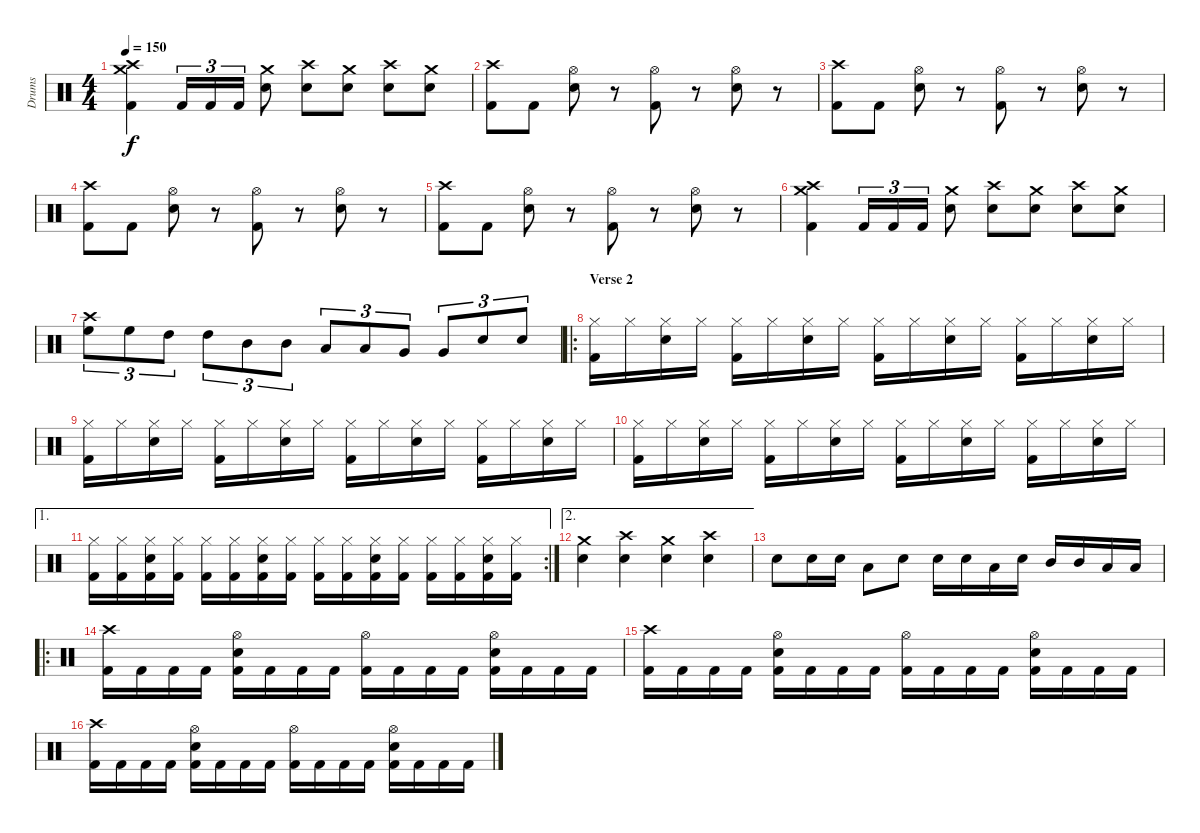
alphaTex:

\track ("Drums" "Drums") {instrument percussion}
\staff {score}
\articulation defaults
\ts (4 4)
\tempo 150
\clef neutral
\ks c
("Crash medium (hit)" "Crash high (hit)" "Kick (hit) 2").4{dy f} "Kick (hit) 2".16{tu (3 2)} "Kick (hit) 2".16{tu (3 2)} "Kick (hit) 2".16{tu (3 2)} ("Crash medium (hit)" "Snare (hit) 2").8 ("Crash high (hit)" "Snare (hit) 2").8 ("Crash medium (hit)" "Snare (hit) 2").8 ("Crash high (hit)" "Snare (hit) 2").8 ("Crash medium (hit)" "Snare (hit) 2").8 |
("Crash high (hit)" "Kick (hit) 2").8 "Kick (hit) 2".8 ("Hi-Hat (open)" "Snare (hit) 2").8 r.8 ("Hi-Hat (open)" "Kick (hit) 2").8 r.8 ("Hi-Hat (open)" "Snare (hit) 2").8 r.8 |
("Crash high (hit)" "Kick (hit) 2").8 "Kick (hit) 2".8 ("Hi-Hat (open)" "Snare (hit) 2").8 r.8 ("Hi-Hat (open)" "Kick (hit) 2").8 r.8 ("Hi-Hat (open)" "Snare (hit) 2").8 r.8 |
("Crash high (hit)" "Kick (hit) 2").8 "Kick (hit) 2".8 ("Hi-Hat (open)" "Snare (hit) 2").8 r.8 ("Hi-Hat (open)" "Kick (hit) 2").8 r.8 ("Hi-Hat (open)" "Snare (hit) 2").8 r.8 |
("Crash high (hit)" "Kick (hit) 2").8 "Kick (hit) 2".8 ("Hi-Hat (open)" "Snare (hit) 2").8 r.8 ("Hi-Hat (open)" "Kick (hit) 2").8 r.8 ("Hi-Hat (open)" "Snare (hit) 2").8 r.8 |
("Crash medium (hit)" "Crash high (hit)" "Kick (hit) 2").4 "Kick (hit) 2".16{tu (3 2)} "Kick (hit) 2".16{tu (3 2)} "Kick (hit) 2".16{tu (3 2)} ("Crash medium (hit)" "Snare (hit) 2").8 ("Crash high (hit)" "Snare (hit) 2").8 ("Crash medium (hit)" "Snare (hit) 2").8 ("Crash high (hit)" "Snare (hit) 2").8 ("Crash medium (hit)" "Snare (hit) 2").8 |
("Crash high (hit)" "High Floor Tom (hit)").8{tu (3 2)} "High Floor Tom (hit)".8{tu (3 2)} "High Tom (hit)".8{tu (3 2)} "High Tom (hit)".8{tu (3 2)} "Mid Tom (hit)".8{tu (3 2)} "Mid Tom (hit)".8{tu (3 2)} "Low Tom (hit)".8{tu (3 2)} "Low Tom (hit)".8{tu (3 2)} "Very Low Tom (hit)".8{tu (3 2)} "Very Low Tom (hit)".8{tu (3 2)} "Snare (hit) 2".8{tu (3 2)} "Snare (hit) 2".8{tu (3 2)} |
\ro
\section ("" "Verse 2")
("Hi-Hat (closed)" "Kick (hit) 2").16 "Hi-Hat (closed)".16 ("Hi-Hat (closed)" "Snare (hit) 2").16 "Hi-Hat (closed)".16 ("Hi-Hat (closed)" "Kick (hit) 2").16 "Hi-Hat (closed)".16 ("Hi-Hat (closed)" "Snare (hit) 2").16 "Hi-Hat (closed)".16 ("Hi-Hat (closed)" "Kick (hit) 2").16 "Hi-Hat (closed)".16 ("Hi-Hat (closed)" "Snare (hit) 2").16 "Hi-Hat (closed)".16 ("Hi-Hat (closed)" "Kick (hit) 2").16 "Hi-Hat (closed)".16 ("Hi-Hat (closed)" "Snare (hit) 2").16 "Hi-Hat (closed)".16 |
("Hi-Hat (closed)" "Kick (hit) 2").16 "Hi-Hat (closed)".16 ("Hi-Hat (closed)" "Snare (hit) 2").16 "Hi-Hat (closed)".16 ("Hi-Hat (closed)" "Kick (hit) 2").16 "Hi-Hat (closed)".16 ("Hi-Hat (closed)" "Snare (hit) 2").16 "Hi-Hat (closed)".16 ("Hi-Hat (closed)" "Kick (hit) 2").16 "Hi-Hat (closed)".16 ("Hi-Hat (closed)" "Snare (hit) 2").16 "Hi-Hat (closed)".16 ("Hi-Hat (closed)" "Kick (hit) 2").16 "Hi-Hat (closed)".16 ("Hi-Hat (closed)" "Snare (hit) 2").16 "Hi-Hat (closed)".16 |
("Hi-Hat (closed)" "Kick (hit) 2").16 "Hi-Hat (closed)".16 ("Hi-Hat (closed)" "Snare (hit) 2").16 "Hi-Hat (closed)".16 ("Hi-Hat (closed)" "Kick (hit) 2").16 "Hi-Hat (closed)".16 ("Hi-Hat (closed)" "Snare (hit) 2").16 "Hi-Hat (closed)".16 ("Hi-Hat (closed)" "Kick (hit) 2").16 "Hi-Hat (closed)".16 ("Hi-Hat (closed)" "Snare (hit) 2").16 "Hi-Hat (closed)".16 ("Hi-Hat (closed)" "Kick (hit) 2").16 "Hi-Hat (closed)".16 ("Hi-Hat (closed)" "Snare (hit) 2").16 "Hi-Hat (closed)".16 |
\ae 1
\rc 2
("Hi-Hat (closed)" "Kick (hit) 2").16 ("Hi-Hat (closed)" "Kick (hit) 2").16 ("Hi-Hat (closed)" "Snare (hit) 2" "Kick (hit) 2").16 ("Hi-Hat (closed)" "Kick (hit) 2").16 ("Hi-Hat (closed)" "Kick (hit) 2").16 ("Hi-Hat (closed)" "Kick (hit) 2").16 ("Hi-Hat (closed)" "Snare (hit) 2" "Kick (hit) 2").16 ("Hi-Hat (closed)" "Kick (hit) 2").16 ("Hi-Hat (closed)" "Kick (hit) 2").16 ("Hi-Hat (closed)" "Kick (hit) 2").16 ("Hi-Hat (closed)" "Snare (hit) 2" "Kick (hit) 2").16 ("Hi-Hat (closed)" "Kick (hit) 2").16 ("Hi-Hat (closed)" "Kick (hit) 2").16 ("Hi-Hat (closed)" "Kick (hit) 2").16 ("Hi-Hat (closed)" "Snare (hit) 2" "Kick (hit) 2").16 ("Hi-Hat (closed)" "Kick (hit) 2").16 |
\ae 2
("Crash medium (hit)" "Snare (hit) 2").4 ("Crash high (hit)" "Snare (hit) 2").4 ("Crash medium (hit)" "Snare (hit) 2").4 ("Crash high (hit)" "Snare (hit) 2").4 |
"Snare (hit) 2".8 "Snare (hit) 2".16 "Snare (hit) 2".16 "Low Tom (hit)".8 "Snare (hit) 2".8 "Snare (hit) 2".16 "Snare (hit) 2".16 "Low Tom (hit)".16 "Snare (hit) 2".16 "Mid Tom (hit)".16 "Mid Tom (hit)".16 "Low Tom (hit)".16 "Low Tom (hit)".16 |
\ro
("Crash high (hit)" "Kick (hit) 2").16 "Kick (hit) 2".16 "Kick (hit) 2".16 "Kick (hit) 2".16 ("Hi-Hat (open)" "Snare (hit) 2" "Kick (hit) 2").16 "Kick (hit) 2".16 "Kick (hit) 2".16 "Kick (hit) 2".16 ("Hi-Hat (open)" "Kick (hit) 2").16 "Kick (hit) 2".16 "Kick (hit) 2".16 "Kick (hit) 2".16 ("Hi-Hat (open)" "Snare (hit) 2" "Kick (hit) 2").16 "Kick (hit) 2".16 "Kick (hit) 2".16 "Kick (hit) 2".16 |
("Crash high (hit)" "Kick (hit) 2").16 "Kick (hit) 2".16 "Kick (hit) 2".16 "Kick (hit) 2".16 ("Hi-Hat (open)" "Snare (hit) 2" "Kick (hit) 2").16 "Kick (hit) 2".16 "Kick (hit) 2".16 "Kick (hit) 2".16 ("Hi-Hat (open)" "Kick (hit) 2").16 "Kick (hit) 2".16 "Kick (hit) 2".16 "Kick (hit) 2".16 ("Hi-Hat (open)" "Snare (hit) 2" "Kick (hit) 2").16 "Kick (hit) 2".16 "Kick (hit) 2".16 "Kick (hit) 2".16 |
("Crash high (hit)" "Kick (hit) 2").16 "Kick (hit) 2".16 "Kick (hit) 2".16 "Kick (hit) 2".16 ("Hi-Hat (open)" "Snare (hit) 2" "Kick (hit) 2").16 "Kick (hit) 2".16 "Kick (hit) 2".16 "Kick (hit) 2".16 ("Hi-Hat (open)" "Kick (hit) 2").16 "Kick (hit) 2".16 "Kick (hit) 2".16 "Kick (hit) 2".16 ("Hi-Hat (open)" "Snare (hit) 2" "Kick (hit) 2").16 "Kick (hit) 2".16 "Kick (hit) 2".16 "Kick (hit) 2".16
